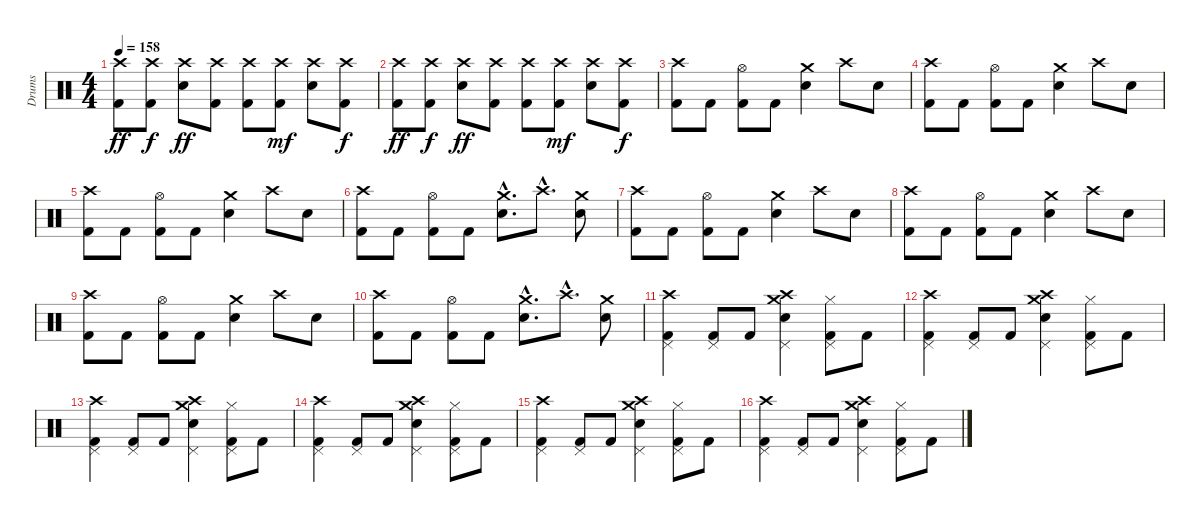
\track ("Drums" "Drums") {instrument percussion}
\staff {score}
\articulation defaults
\ts (4 4)
\tempo 158
\clef neutral
\ks c
("Crash high (hit)" "Kick (hit) 2").8{dy ff} ("Crash high (hit)" "Kick (hit) 2").8{dy f} ("Crash high (hit)" "Snare (hit) 2").8{dy ff} ("Crash high (hit)" "Kick (hit) 2").8 ("Crash high (hit)" "Kick (hit) 2").8 ("Crash high (hit)" "Kick (hit) 2").8{dy mf} ("Crash high (hit)" "Snare (hit) 2").8 ("Crash high (hit)" "Kick (hit) 2").8{dy f} |
("Crash high (hit)" "Kick (hit) 2").8{dy ff} ("Crash high (hit)" "Kick (hit) 2").8{dy f} ("Crash high (hit)" "Snare (hit) 2").8{dy ff} ("Crash high (hit)" "Kick (hit) 2").8 ("Crash high (hit)" "Kick (hit) 2").8 ("Crash high (hit)" "Kick (hit) 2").8{dy mf} ("Crash high (hit)" "Snare (hit) 2").8 ("Crash high (hit)" "Kick (hit) 2").8{dy f} |
("Crash high (hit)" "Kick (hit) 2").8 "Kick (hit) 2".8 ("Hi-Hat (open)" "Kick (hit) 2").8 "Kick (hit) 2".8 ("Crash medium (hit)" "Snare (hit) 2").4 "Crash high (hit)".8 "Snare (hit) 2".8 |
("Crash high (hit)" "Kick (hit) 2").8 "Kick (hit) 2".8 ("Hi-Hat (open)" "Kick (hit) 2").8 "Kick (hit) 2".8 ("Crash medium (hit)" "Snare (hit) 2").4 "Crash high (hit)".8 "Snare (hit) 2".8 |
("Crash high (hit)" "Kick (hit) 2").8 "Kick (hit) 2".8 ("Hi-Hat (open)" "Kick (hit) 2").8 "Kick (hit) 2".8 ("Crash medium (hit)" "Snare (hit) 2").4 "Crash high (hit)".8 "Snare (hit) 2".8 |
("Crash high (hit)" "Kick (hit) 2").8 "Kick (hit) 2".8 ("Hi-Hat (open)" "Kick (hit) 2").8 "Kick (hit) 2".8 ("Crash medium (hit)"{hac} "Snare (hit) 2"{hac}).8{d} "Crash high (hit)"{hac}.8{d} ("Crash medium (hit)" "Snare (hit) 2").8 |
("Crash high (hit)" "Kick (hit) 2").8 "Kick (hit) 2".8 ("Hi-Hat (open)" "Kick (hit) 2").8 "Kick (hit) 2".8 ("Crash medium (hit)" "Snare (hit) 2").4 "Crash high (hit)".8 "Snare (hit) 2".8 |
("Crash high (hit)" "Kick (hit) 2").8 "Kick (hit) 2".8 ("Hi-Hat (open)" "Kick (hit) 2").8 "Kick (hit) 2".8 ("Crash medium (hit)" "Snare (hit) 2").4 "Crash high (hit)".8 "Snare (hit) 2".8 |
("Crash high (hit)" "Kick (hit) 2").8 "Kick (hit) 2".8 ("Hi-Hat (open)" "Kick (hit) 2").8 "Kick (hit) 2".8 ("Crash medium (hit)" "Snare (hit) 2").4 "Crash high (hit)".8 "Snare (hit) 2".8 |
("Crash high (hit)" "Kick (hit) 2").8 "Kick (hit) 2".8 ("Hi-Hat (open)" "Kick (hit) 2").8 "Kick (hit) 2".8 ("Crash medium (hit)"{hac} "Snare (hit) 2"{hac}).8{d} "Crash high (hit)"{hac}.8{d} ("Crash medium (hit)" "Snare (hit) 2").8 |
("Crash high (hit)" "Kick (hit) 2" "Pedal Hi-Hat (hit)").4 ("Kick (hit) 2" "Pedal Hi-Hat (hit)").8 "Kick (hit) 2".8 ("Crash high (hit)" "Crash medium (hit)" "Snare (hit) 2" "Pedal Hi-Hat (hit)").4 ("Hi-Hat (closed)" "Kick (hit) 2" "Pedal Hi-Hat (hit)").8 "Kick (hit) 2".8 |
("Crash high (hit)" "Kick (hit) 2" "Pedal Hi-Hat (hit)").4 ("Kick (hit) 2" "Pedal Hi-Hat (hit)").8 "Kick (hit) 2".8 ("Crash high (hit)" "Crash medium (hit)" "Snare (hit) 2" "Pedal Hi-Hat (hit)").4 ("Hi-Hat (closed)" "Kick (hit) 2" "Pedal Hi-Hat (hit)").8 "Kick (hit) 2".8 |
("Crash high (hit)" "Kick (hit) 2" "Pedal Hi-Hat (hit)").4 ("Kick (hit) 2" "Pedal Hi-Hat (hit)").8 "Kick (hit) 2".8 ("Crash high (hit)" "Crash medium (hit)" "Snare (hit) 2" "Pedal Hi-Hat (hit)").4 ("Hi-Hat (closed)" "Kick (hit) 2" "Pedal Hi-Hat (hit)").8 "Kick (hit) 2".8 |
("Crash high (hit)" "Kick (hit) 2" "Pedal Hi-Hat (hit)").4 ("Kick (hit) 2" "Pedal Hi-Hat (hit)").8 "Kick (hit) 2".8 ("Crash high (hit)" "Crash medium (hit)" "Snare (hit) 2" "Pedal Hi-Hat (hit)").4 ("Hi-Hat (closed)" "Kick (hit) 2" "Pedal Hi-Hat (hit)").8 "Kick (hit) 2".8 |
("Crash high (hit)" "Kick (hit) 2" "Pedal Hi-Hat (hit)").4 ("Kick (hit) 2" "Pedal Hi-Hat (hit)").8 "Kick (hit) 2".8 ("Crash high (hit)" "Crash medium (hit)" "Snare (hit) 2" "Pedal Hi-Hat (hit)").4 ("Hi-Hat (closed)" "Kick (hit) 2" "Pedal Hi-Hat (hit)").8 "Kick (hit) 2".8 |
("Crash high (hit)" "Kick (hit) 2" "Pedal Hi-Hat (hit)").4 ("Kick (hit) 2" "Pedal Hi-Hat (hit)").8 "Kick (hit) 2".8 ("Crash high (hit)" "Crash medium (hit)" "Snare (hit) 2" "Pedal Hi-Hat (hit)").4 ("Hi-Hat (closed)" "Kick (hit) 2" "Pedal Hi-Hat (hit)").8 "Kick (hit) 2".8
